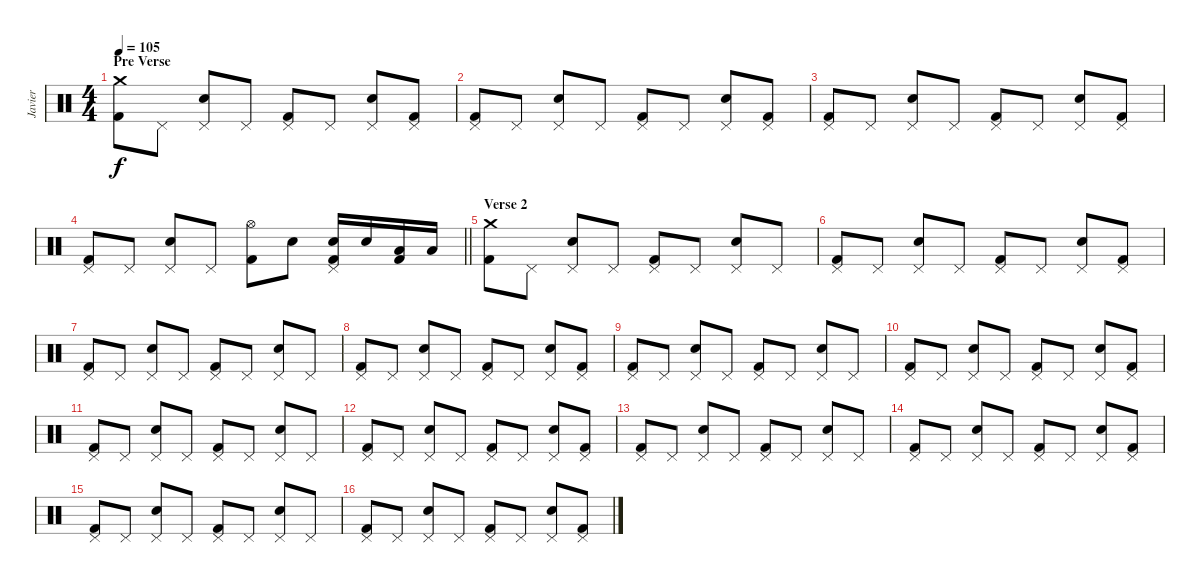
\track ("Javier" "Javier") {instrument percussion}
\staff {score}
\articulation defaults
\ts (4 4)
\section ("" "Pre Verse ")
\tempo 105
\clef neutral
\ks c
("Crash medium (hit)" "Kick (hit) 2").8{dy f} "Pedal Hi-Hat (hit)".8 ("Pedal Hi-Hat (hit)" "Snare (hit) 2").8 "Pedal Hi-Hat (hit)".8 ("Pedal Hi-Hat (hit)" "Kick (hit) 2").8 "Pedal Hi-Hat (hit)".8 ("Pedal Hi-Hat (hit)" "Snare (hit) 2").8 ("Pedal Hi-Hat (hit)" "Kick (hit) 2").8 |
("Pedal Hi-Hat (hit)" "Kick (hit) 2").8 "Pedal Hi-Hat (hit)".8 ("Pedal Hi-Hat (hit)" "Snare (hit) 2").8 "Pedal Hi-Hat (hit)".8 ("Pedal Hi-Hat (hit)" "Kick (hit) 2").8 "Pedal Hi-Hat (hit)".8 ("Pedal Hi-Hat (hit)" "Snare (hit) 2").8 ("Pedal Hi-Hat (hit)" "Kick (hit) 2").8 |
("Pedal Hi-Hat (hit)" "Kick (hit) 2").8 "Pedal Hi-Hat (hit)".8 ("Pedal Hi-Hat (hit)" "Snare (hit) 2").8 "Pedal Hi-Hat (hit)".8 ("Pedal Hi-Hat (hit)" "Kick (hit) 2").8 "Pedal Hi-Hat (hit)".8 ("Pedal Hi-Hat (hit)" "Snare (hit) 2").8 ("Pedal Hi-Hat (hit)" "Kick (hit) 2").8 |
\barLineRight lightlight
("Pedal Hi-Hat (hit)" "Kick (hit) 2").8 "Pedal Hi-Hat (hit)".8 ("Pedal Hi-Hat (hit)" "Snare (hit) 2").8 "Pedal Hi-Hat (hit)".8 ("Hi-Hat (open)" "Kick (hit) 2").8 "Snare (hit) 2".8 ("Pedal Hi-Hat (hit)" "Snare (hit) 2" "Kick (hit) 2").16 "Snare (hit) 2".16 ("Low Tom (hit)" "Kick (hit) 2").16 "Low Tom (hit)".16 |
\section ("" "Verse 2")
("Crash medium (hit)" "Kick (hit) 2").8 "Pedal Hi-Hat (hit)".8 ("Pedal Hi-Hat (hit)" "Snare (hit) 2").8 "Pedal Hi-Hat (hit)".8 ("Pedal Hi-Hat (hit)" "Kick (hit) 2").8 "Pedal Hi-Hat (hit)".8 ("Pedal Hi-Hat (hit)" "Snare (hit) 2").8 "Pedal Hi-Hat (hit)".8 |
("Pedal Hi-Hat (hit)" "Kick (hit) 2").8 "Pedal Hi-Hat (hit)".8 ("Pedal Hi-Hat (hit)" "Snare (hit) 2").8 "Pedal Hi-Hat (hit)".8 ("Pedal Hi-Hat (hit)" "Kick (hit) 2").8 "Pedal Hi-Hat (hit)".8 ("Pedal Hi-Hat (hit)" "Snare (hit) 2").8 ("Pedal Hi-Hat (hit)" "Kick (hit) 2").8 |
("Pedal Hi-Hat (hit)" "Kick (hit) 2").8 "Pedal Hi-Hat (hit)".8 ("Pedal Hi-Hat (hit)" "Snare (hit) 2").8 "Pedal Hi-Hat (hit)".8 ("Pedal Hi-Hat (hit)" "Kick (hit) 2").8 "Pedal Hi-Hat (hit)".8 ("Pedal Hi-Hat (hit)" "Snare (hit) 2").8 "Pedal Hi-Hat (hit)".8 |
("Pedal Hi-Hat (hit)" "Kick (hit) 2").8 "Pedal Hi-Hat (hit)".8 ("Pedal Hi-Hat (hit)" "Snare (hit) 2").8 "Pedal Hi-Hat (hit)".8 ("Pedal Hi-Hat (hit)" "Kick (hit) 2").8 "Pedal Hi-Hat (hit)".8 ("Pedal Hi-Hat (hit)" "Snare (hit) 2").8 ("Pedal Hi-Hat (hit)" "Kick (hit) 2").8 |
("Pedal Hi-Hat (hit)" "Kick (hit) 2").8 "Pedal Hi-Hat (hit)".8 ("Pedal Hi-Hat (hit)" "Snare (hit) 2").8 "Pedal Hi-Hat (hit)".8 ("Pedal Hi-Hat (hit)" "Kick (hit) 2").8 "Pedal Hi-Hat (hit)".8 ("Pedal Hi-Hat (hit)" "Snare (hit) 2").8 "Pedal Hi-Hat (hit)".8 |
("Pedal Hi-Hat (hit)" "Kick (hit) 2").8 "Pedal Hi-Hat (hit)".8 ("Pedal Hi-Hat (hit)" "Snare (hit) 2").8 "Pedal Hi-Hat (hit)".8 ("Pedal Hi-Hat (hit)" "Kick (hit) 2").8 "Pedal Hi-Hat (hit)".8 ("Pedal Hi-Hat (hit)" "Snare (hit) 2").8 ("Pedal Hi-Hat (hit)" "Kick (hit) 2").8 |
("Pedal Hi-Hat (hit)" "Kick (hit) 2").8 "Pedal Hi-Hat (hit)".8 ("Pedal Hi-Hat (hit)" "Snare (hit) 2").8 "Pedal Hi-Hat (hit)".8 ("Pedal Hi-Hat (hit)" "Kick (hit) 2").8 "Pedal Hi-Hat (hit)".8 ("Pedal Hi-Hat (hit)" "Snare (hit) 2").8 "Pedal Hi-Hat (hit)".8 |
("Pedal Hi-Hat (hit)" "Kick (hit) 2").8 "Pedal Hi-Hat (hit)".8 ("Pedal Hi-Hat (hit)" "Snare (hit) 2").8 "Pedal Hi-Hat (hit)".8 ("Pedal Hi-Hat (hit)" "Kick (hit) 2").8 "Pedal Hi-Hat (hit)".8 ("Pedal Hi-Hat (hit)" "Snare (hit) 2").8 ("Pedal Hi-Hat (hit)" "Kick (hit) 2").8 |
("Pedal Hi-Hat (hit)" "Kick (hit) 2").8 "Pedal Hi-Hat (hit)".8 ("Pedal Hi-Hat (hit)" "Snare (hit) 2").8 "Pedal Hi-Hat (hit)".8 ("Pedal Hi-Hat (hit)" "Kick (hit) 2").8 "Pedal Hi-Hat (hit)".8 ("Pedal Hi-Hat (hit)" "Snare (hit) 2").8 "Pedal Hi-Hat (hit)".8 |
("Pedal Hi-Hat (hit)" "Kick (hit) 2").8 "Pedal Hi-Hat (hit)".8 ("Pedal Hi-Hat (hit)" "Snare (hit) 2").8 "Pedal Hi-Hat (hit)".8 ("Pedal Hi-Hat (hit)" "Kick (hit) 2").8 "Pedal Hi-Hat (hit)".8 ("Pedal Hi-Hat (hit)" "Snare (hit) 2").8 ("Pedal Hi-Hat (hit)" "Kick (hit) 2").8 |
("Pedal Hi-Hat (hit)" "Kick (hit) 2").8 "Pedal Hi-Hat (hit)".8 ("Pedal Hi-Hat (hit)" "Snare (hit) 2").8 "Pedal Hi-Hat (hit)".8 ("Pedal Hi-Hat (hit)" "Kick (hit) 2").8 "Pedal Hi-Hat (hit)".8 ("Pedal Hi-Hat (hit)" "Snare (hit) 2").8 "Pedal Hi-Hat (hit)".8 |
("Pedal Hi-Hat (hit)" "Kick (hit) 2").8 "Pedal Hi-Hat (hit)".8 ("Pedal Hi-Hat (hit)" "Snare (hit) 2").8 "Pedal Hi-Hat (hit)".8 ("Pedal Hi-Hat (hit)" "Kick (hit) 2").8 "Pedal Hi-Hat (hit)".8 ("Pedal Hi-Hat (hit)" "Snare (hit) 2").8 ("Pedal Hi-Hat (hit)" "Kick (hit) 2").8
